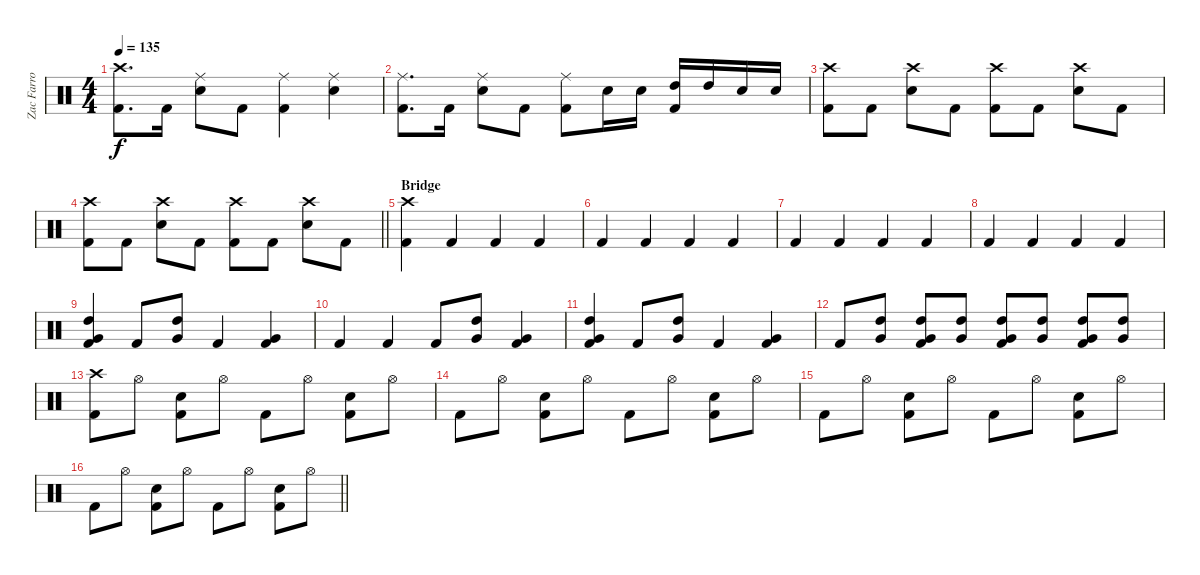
\track ("Zac Farro (Percussion)" "Zac Farro ") {instrument percussion}
\staff {score}
\articulation defaults
\ts (4 4)
\tempo 135
\clef neutral
\ks c
("Crash high (hit)" "Kick (hit) 2").8{d dy f} "Kick (hit) 2".16 ("Ride (middle)" "Snare (hit) 2").8 "Kick (hit) 2".8 ("Ride (middle)" "Kick (hit) 2").4 ("Ride (middle)" "Snare (hit) 2").4 |
("Ride (middle)" "Kick (hit) 2").8{d} "Kick (hit) 2".16 ("Ride (middle)" "Snare (hit) 2").8 "Kick (hit) 2".8 ("Ride (middle)" "Kick (hit) 2").8 "Snare (hit) 2".16 "Snare (hit) 2".16 ("High Tom (hit)" "Kick (hit) 2").16 "High Tom (hit)".16 "Snare (hit) 2".16 "Snare (hit) 2".16 |
("Crash high (hit)" "Kick (hit) 2").8 "Kick (hit) 2".8 ("Crash high (hit)" "Snare (hit) 2").8 "Kick (hit) 2".8 ("Crash high (hit)" "Kick (hit) 2").8 "Kick (hit) 2".8 ("Crash high (hit)" "Snare (hit) 2").8 "Kick (hit) 2".8 |
\barLineRight lightlight
("Crash high (hit)" "Kick (hit) 2").8 "Kick (hit) 2".8 ("Crash high (hit)" "Snare (hit) 2").8 "Kick (hit) 2".8 ("Crash high (hit)" "Kick (hit) 2").8 "Kick (hit) 2".8 ("Crash high (hit)" "Snare (hit) 2").8 "Kick (hit) 2".8 |
\section ("" "Bridge")
("Crash high (hit)" "Kick (hit) 2").4 "Kick (hit) 2".4 "Kick (hit) 2".4 "Kick (hit) 2".4 |
"Kick (hit) 2".4 "Kick (hit) 2".4 "Kick (hit) 2".4 "Kick (hit) 2".4 |
"Kick (hit) 2".4 "Kick (hit) 2".4 "Kick (hit) 2".4 "Kick (hit) 2".4 |
"Kick (hit) 2".4 "Kick (hit) 2".4 "Kick (hit) 2".4 "Kick (hit) 2".4 |
("High Tom (hit)" "Very Low Tom (hit)" "Kick (hit) 2").4 "Kick (hit) 2".8 ("High Tom (hit)" "Very Low Tom (hit)").8 "Kick (hit) 2".4 ("Very Low Tom (hit)" "Kick (hit) 2").4 |
"Kick (hit) 2".4 "Kick (hit) 2".4 "Kick (hit) 2".8 ("High Tom (hit)" "Very Low Tom (hit)").8 ("Very Low Tom (hit)" "Kick (hit) 2").4 |
("High Tom (hit)" "Very Low Tom (hit)" "Kick (hit) 2").4 "Kick (hit) 2".8 ("High Tom (hit)" "Very Low Tom (hit)").8 "Kick (hit) 2".4 ("Very Low Tom (hit)" "Kick (hit) 2").4 |
"Kick (hit) 2".8 ("High Tom (hit)" "Very Low Tom (hit)").8 ("High Tom (hit)" "Very Low Tom (hit)" "Kick (hit) 2").8 ("High Tom (hit)" "Very Low Tom (hit)").8 ("High Tom (hit)" "Very Low Tom (hit)" "Kick (hit) 2").8 ("High Tom (hit)" "Very Low Tom (hit)").8 ("High Tom (hit)" "Very Low Tom (hit)" "Kick (hit) 2").8 ("High Tom (hit)" "Very Low Tom (hit)").8 |
("Crash high (hit)" "Kick (hit) 2").8 "Hi-Hat (open)".8 ("Snare (hit) 2" "Kick (hit) 2").8 "Hi-Hat (open)".8 "Kick (hit) 2".8 "Hi-Hat (open)".8 ("Snare (hit) 2" "Kick (hit) 2").8 "Hi-Hat (open)".8 |
"Kick (hit) 2".8 "Hi-Hat (open)".8 ("Snare (hit) 2" "Kick (hit) 2").8 "Hi-Hat (open)".8 "Kick (hit) 2".8 "Hi-Hat (open)".8 ("Snare (hit) 2" "Kick (hit) 2").8 "Hi-Hat (open)".8 |
"Kick (hit) 2".8 "Hi-Hat (open)".8 ("Snare (hit) 2" "Kick (hit) 2").8 "Hi-Hat (open)".8 "Kick (hit) 2".8 "Hi-Hat (open)".8 ("Snare (hit) 2" "Kick (hit) 2").8 "Hi-Hat (open)".8 |
\barLineRight lightlight "Kick (hit) 2".8 "Hi-Hat (open)".8
("Snare (hit) 2" "Kick (hit) 2").8 "Hi-Hat (open)".8 "Kick (hit) 2".8 "Hi-Hat (open)".8 ("Snare (hit) 2" "Kick (hit) 2").8 "Hi-Hat (open)".8
